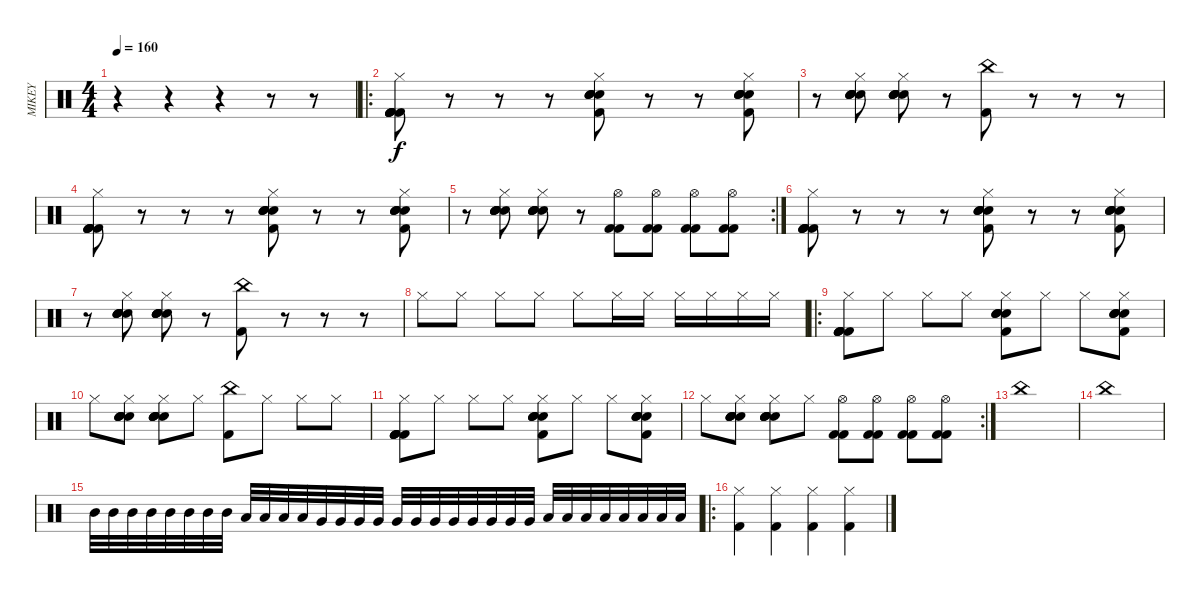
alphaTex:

\track ("MIKEY" "MIKEY") {instrument percussion}
\staff {score}
\articulation defaults
\ts (4 4)
\tempo 160
\clef neutral
\ks c
r.4{dy f} r.4 r.4 r.8 r.8 |
\ro
("Hi-Hat (closed)" "Kick (hit) 2" "Kick (hit) 2" "Kick (hit) 2" "Kick (hit) 2" "Kick (hit) 2").8 r.8 r.8 r.8 ("Hi-Hat (closed)" "Kick (hit) 2" "Electric Snare (hit)" "Electric Snare (hit)" "Electric Snare (hit)" "Electric Snare (hit)").8 r.8 r.8 ("Hi-Hat (closed)" "Kick (hit) 2" "Electric Snare (hit)" "Electric Snare (hit)" "Electric Snare (hit)" "Electric Snare (hit)").8 |
r.8 ("Hi-Hat (closed)" "Electric Snare (hit)" "Electric Snare (hit)" "Electric Snare (hit)" "Electric Snare (hit)" "Electric Snare (hit)").8 ("Hi-Hat (closed)" "Electric Snare (hit)" "Electric Snare (hit)" "Electric Snare (hit)" "Electric Snare (hit)" "Electric Snare (hit)").8 r.8 ("Kick (hit) 2" "China (hit)").8 r.8 r.8 r.8 |
("Hi-Hat (closed)" "Kick (hit) 2" "Kick (hit) 2" "Kick (hit) 2" "Kick (hit) 2" "Kick (hit) 2").8 r.8 r.8 r.8 ("Hi-Hat (closed)" "Kick (hit) 2" "Electric Snare (hit)" "Electric Snare (hit)" "Electric Snare (hit)" "Electric Snare (hit)").8 r.8 r.8 ("Hi-Hat (closed)" "Kick (hit) 2" "Electric Snare (hit)" "Electric Snare (hit)" "Electric Snare (hit)" "Electric Snare (hit)").8 |
\rc 2
r.8 ("Hi-Hat (closed)" "Electric Snare (hit)" "Electric Snare (hit)" "Electric Snare (hit)" "Electric Snare (hit)" "Electric Snare (hit)").8 ("Hi-Hat (closed)" "Electric Snare (hit)" "Electric Snare (hit)" "Electric Snare (hit)" "Electric Snare (hit)" "Electric Snare (hit)").8 r.8 ("Hi-Hat (open)" "Kick (hit) 2" "Kick (hit) 2").8 ("Hi-Hat (open)" "Kick (hit) 2" "Kick (hit) 2").8 ("Hi-Hat (open)" "Kick (hit) 2" "Kick (hit) 2").8 ("Hi-Hat (open)" "Kick (hit) 2" "Kick (hit) 2").8 |
("Hi-Hat (closed)" "Kick (hit) 2" "Kick (hit) 2" "Kick (hit) 2" "Kick (hit) 2" "Kick (hit) 2").8 r.8 r.8 r.8 ("Hi-Hat (closed)" "Kick (hit) 2" "Electric Snare (hit)" "Electric Snare (hit)" "Electric Snare (hit)" "Electric Snare (hit)").8 r.8 r.8 ("Hi-Hat (closed)" "Kick (hit) 2" "Electric Snare (hit)" "Electric Snare (hit)" "Electric Snare (hit)" "Electric Snare (hit)").8 |
r.8 ("Hi-Hat (closed)" "Electric Snare (hit)" "Electric Snare (hit)" "Electric Snare (hit)" "Electric Snare (hit)" "Electric Snare (hit)").8 ("Hi-Hat (closed)" "Electric Snare (hit)" "Electric Snare (hit)" "Electric Snare (hit)" "Electric Snare (hit)" "Electric Snare (hit)").8 r.8 ("Kick (hit) 2" "China (hit)").8 r.8 r.8 r.8 |
"Hi-Hat (closed)".8 "Hi-Hat (closed)".8 "Hi-Hat (closed)".8 "Hi-Hat (closed)".8 "Hi-Hat (closed)".8 "Hi-Hat (closed)".16 "Hi-Hat (closed)".16 "Hi-Hat (closed)".16 "Hi-Hat (closed)".16 "Hi-Hat (closed)".16 "Hi-Hat (closed)".16 |
\ro
("Hi-Hat (closed)" "Kick (hit) 2" "Kick (hit) 2" "Kick (hit) 2" "Kick (hit) 2" "Kick (hit) 2").8 "Hi-Hat (closed)".8 "Hi-Hat (closed)".8 "Hi-Hat (closed)".8 ("Hi-Hat (closed)" "Kick (hit) 2" "Electric Snare (hit)" "Electric Snare (hit)" "Electric Snare (hit)" "Electric Snare (hit)").8 "Hi-Hat (closed)".8 "Hi-Hat (closed)".8 ("Hi-Hat (closed)" "Kick (hit) 2" "Electric Snare (hit)" "Electric Snare (hit)" "Electric Snare (hit)" "Electric Snare (hit)").8 |
"Hi-Hat (closed)".8 ("Hi-Hat (closed)" "Electric Snare (hit)" "Electric Snare (hit)" "Electric Snare (hit)" "Electric Snare (hit)" "Electric Snare (hit)").8 ("Hi-Hat (closed)" "Electric Snare (hit)" "Electric Snare (hit)" "Electric Snare (hit)" "Electric Snare (hit)" "Electric Snare (hit)").8 "Hi-Hat (closed)".8 ("Kick (hit) 2" "China (hit)").8 "Hi-Hat (closed)".8 "Hi-Hat (closed)".8 "Hi-Hat (closed)".8 |
("Hi-Hat (closed)" "Kick (hit) 2" "Kick (hit) 2" "Kick (hit) 2" "Kick (hit) 2" "Kick (hit) 2").8 "Hi-Hat (closed)".8 "Hi-Hat (closed)".8 "Hi-Hat (closed)".8 ("Hi-Hat (closed)" "Kick (hit) 2" "Electric Snare (hit)" "Electric Snare (hit)" "Electric Snare (hit)" "Electric Snare (hit)").8 "Hi-Hat (closed)".8 "Hi-Hat (closed)".8 ("Hi-Hat (closed)" "Kick (hit) 2" "Electric Snare (hit)" "Electric Snare (hit)" "Electric Snare (hit)" "Electric Snare (hit)").8 |
\rc 2 "Hi-Hat (closed)".8
("Hi-Hat (closed)" "Electric Snare (hit)" "Electric Snare (hit)" "Electric Snare (hit)" "Electric Snare (hit)" "Electric Snare (hit)").8 ("Hi-Hat (closed)" "Electric Snare (hit)" "Electric Snare (hit)" "Electric Snare (hit)" "Electric Snare (hit)" "Electric Snare (hit)").8 "Hi-Hat (closed)".8 ("Hi-Hat (open)" "Kick (hit) 2" "Kick (hit) 2").8 ("Hi-Hat (open)" "Kick (hit) 2" "Kick (hit) 2").8 ("Hi-Hat (open)" "Kick (hit) 2" "Kick (hit) 2").8 ("Hi-Hat (open)" "Kick (hit) 2" "Kick (hit) 2").8 |
"China (hit)".1 |
"China (hit)".1 |
"Mid Tom (hit)".32 "Mid Tom (hit)".32 "Mid Tom (hit)".32 "Mid Tom (hit)".32 "Mid Tom (hit)".32 "Mid Tom (hit)".32 "Mid Tom (hit)".32 "Mid Tom (hit)".32 "Low Tom (hit)".32 "Low Tom (hit)".32 "Low Tom (hit)".32 "Low Tom (hit)".32 "Very Low Tom (hit)".32 "Very Low Tom (hit)".32 "Very Low Tom (hit)".32 "Very Low Tom (hit)".32 "Very Low Tom (hit)".32 "Very Low Tom (hit)".32 "Very Low Tom (hit)".32 "Very Low Tom (hit)".32 "Very Low Tom (hit)".32 "Very Low Tom (hit)".32 "Very Low Tom (hit)".32 "Very Low Tom (hit)".32 "Low Floor Tom (hit)".32 "Low Floor Tom (hit)".32 "Low Floor Tom (hit)".32 "Low Floor Tom (hit)".32 "Low Floor Tom (hit)".32 "Low Floor Tom (hit)".32 "Low Floor Tom (hit)".32 "Low Floor Tom (hit)".32 |
\ro
("Hi-Hat (closed)" "Kick (hit) 2").4 ("Hi-Hat (closed)" "Kick (hit) 2").4 ("Hi-Hat (closed)" "Kick (hit) 2").4 ("Hi-Hat (closed)" "Kick (hit) 2").4
